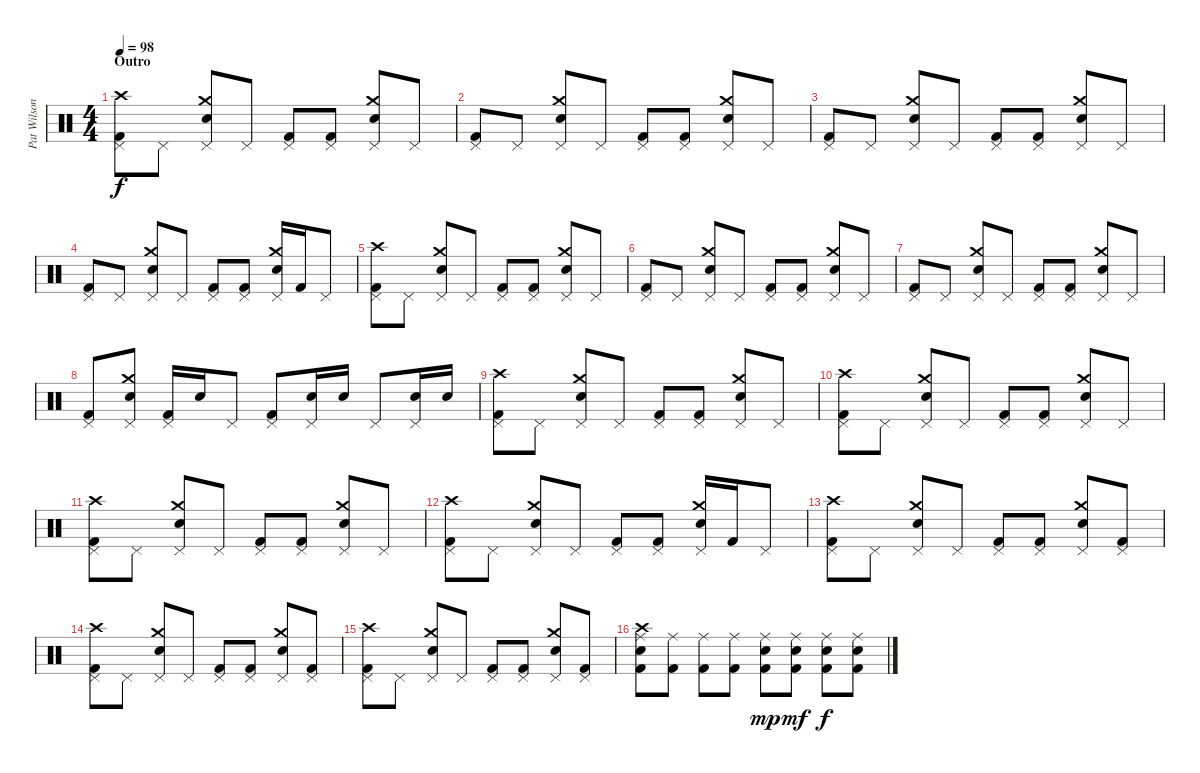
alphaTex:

\track ("Pat Wilson - Drums" "Pat Wilson") {instrument percussion}
\staff {score}
\articulation defaults
\ts (4 4)
\section ("" "Outro")
\tempo 98
\clef neutral
\ks c
("Crash high (hit)" "Pedal Hi-Hat (hit)" "Kick (hit) 2").8{dy f} "Pedal Hi-Hat (hit)".8 ("Crash medium (hit)" "Pedal Hi-Hat (hit)" "Electric Snare (hit)").8 "Pedal Hi-Hat (hit)".8 ("Pedal Hi-Hat (hit)" "Kick (hit) 2").8 ("Pedal Hi-Hat (hit)" "Kick (hit) 2").8 ("Crash medium (hit)" "Pedal Hi-Hat (hit)" "Electric Snare (hit)").8 "Pedal Hi-Hat (hit)".8 |
("Pedal Hi-Hat (hit)" "Kick (hit) 2").8 "Pedal Hi-Hat (hit)".8 ("Crash medium (hit)" "Pedal Hi-Hat (hit)" "Electric Snare (hit)").8 "Pedal Hi-Hat (hit)".8 ("Pedal Hi-Hat (hit)" "Kick (hit) 2").8 ("Pedal Hi-Hat (hit)" "Kick (hit) 2").8 ("Crash medium (hit)" "Pedal Hi-Hat (hit)" "Electric Snare (hit)").8 "Pedal Hi-Hat (hit)".8 |
("Pedal Hi-Hat (hit)" "Kick (hit) 2").8 "Pedal Hi-Hat (hit)".8 ("Crash medium (hit)" "Pedal Hi-Hat (hit)" "Electric Snare (hit)").8 "Pedal Hi-Hat (hit)".8 ("Pedal Hi-Hat (hit)" "Kick (hit) 2").8 ("Pedal Hi-Hat (hit)" "Kick (hit) 2").8 ("Crash medium (hit)" "Pedal Hi-Hat (hit)" "Electric Snare (hit)").8 "Pedal Hi-Hat (hit)".8 |
("Pedal Hi-Hat (hit)" "Kick (hit) 2").8 "Pedal Hi-Hat (hit)".8 ("Crash medium (hit)" "Pedal Hi-Hat (hit)" "Electric Snare (hit)").8 "Pedal Hi-Hat (hit)".8 ("Pedal Hi-Hat (hit)" "Kick (hit) 2").8 ("Pedal Hi-Hat (hit)" "Kick (hit) 2").8 ("Crash medium (hit)" "Pedal Hi-Hat (hit)" "Electric Snare (hit)").16 "Kick (hit) 2".16 "Pedal Hi-Hat (hit)".8 |
("Crash high (hit)" "Pedal Hi-Hat (hit)" "Kick (hit) 2").8 "Pedal Hi-Hat (hit)".8 ("Crash medium (hit)" "Pedal Hi-Hat (hit)" "Electric Snare (hit)").8 "Pedal Hi-Hat (hit)".8 ("Pedal Hi-Hat (hit)" "Kick (hit) 2").8 ("Pedal Hi-Hat (hit)" "Kick (hit) 2").8 ("Crash medium (hit)" "Pedal Hi-Hat (hit)" "Electric Snare (hit)").8 "Pedal Hi-Hat (hit)".8 |
("Pedal Hi-Hat (hit)" "Kick (hit) 2").8 "Pedal Hi-Hat (hit)".8 ("Crash medium (hit)" "Pedal Hi-Hat (hit)" "Electric Snare (hit)").8 "Pedal Hi-Hat (hit)".8 ("Pedal Hi-Hat (hit)" "Kick (hit) 2").8 ("Pedal Hi-Hat (hit)" "Kick (hit) 2").8 ("Crash medium (hit)" "Pedal Hi-Hat (hit)" "Electric Snare (hit)").8 "Pedal Hi-Hat (hit)".8 |
("Pedal Hi-Hat (hit)" "Kick (hit) 2").8 "Pedal Hi-Hat (hit)".8 ("Crash medium (hit)" "Pedal Hi-Hat (hit)" "Electric Snare (hit)").8 "Pedal Hi-Hat (hit)".8 ("Pedal Hi-Hat (hit)" "Kick (hit) 2").8 ("Pedal Hi-Hat (hit)" "Kick (hit) 2").8 ("Crash medium (hit)" "Pedal Hi-Hat (hit)" "Electric Snare (hit)").8 "Pedal Hi-Hat (hit)".8 |
("Pedal Hi-Hat (hit)" "Kick (hit) 2").8 ("Crash medium (hit)" "Pedal Hi-Hat (hit)" "Electric Snare (hit)").8 ("Pedal Hi-Hat (hit)" "Kick (hit) 2").16 "Electric Snare (hit)".16 "Pedal Hi-Hat (hit)".8 ("Pedal Hi-Hat (hit)" "Kick (hit) 2").8 ("Pedal Hi-Hat (hit)" "Electric Snare (hit)").16 "Electric Snare (hit)".16 "Pedal Hi-Hat (hit)".8 ("Pedal Hi-Hat (hit)" "Electric Snare (hit)").16 "Electric Snare (hit)".16 |
("Crash high (hit)" "Pedal Hi-Hat (hit)" "Kick (hit) 2").8 "Pedal Hi-Hat (hit)".8 ("Crash medium (hit)" "Pedal Hi-Hat (hit)" "Electric Snare (hit)").8 "Pedal Hi-Hat (hit)".8 ("Pedal Hi-Hat (hit)" "Kick (hit) 2").8 ("Pedal Hi-Hat (hit)" "Kick (hit) 2").8 ("Crash medium (hit)" "Pedal Hi-Hat (hit)" "Electric Snare (hit)").8 "Pedal Hi-Hat (hit)".8 |
("Crash high (hit)" "Pedal Hi-Hat (hit)" "Kick (hit) 2").8 "Pedal Hi-Hat (hit)".8 ("Crash medium (hit)" "Pedal Hi-Hat (hit)" "Electric Snare (hit)").8 "Pedal Hi-Hat (hit)".8 ("Pedal Hi-Hat (hit)" "Kick (hit) 2").8 ("Pedal Hi-Hat (hit)" "Kick (hit) 2").8 ("Crash medium (hit)" "Pedal Hi-Hat (hit)" "Electric Snare (hit)").8 "Pedal Hi-Hat (hit)".8 |
("Crash high (hit)" "Pedal Hi-Hat (hit)" "Kick (hit) 2").8 "Pedal Hi-Hat (hit)".8 ("Crash medium (hit)" "Pedal Hi-Hat (hit)" "Electric Snare (hit)").8 "Pedal Hi-Hat (hit)".8 ("Pedal Hi-Hat (hit)" "Kick (hit) 2").8 ("Pedal Hi-Hat (hit)" "Kick (hit) 2").8 ("Crash medium (hit)" "Pedal Hi-Hat (hit)" "Electric Snare (hit)").8 "Pedal Hi-Hat (hit)".8 |
("Crash high (hit)" "Pedal Hi-Hat (hit)" "Kick (hit) 2").8 "Pedal Hi-Hat (hit)".8 ("Crash medium (hit)" "Pedal Hi-Hat (hit)" "Electric Snare (hit)").8 "Pedal Hi-Hat (hit)".8 ("Pedal Hi-Hat (hit)" "Kick (hit) 2").8 ("Pedal Hi-Hat (hit)" "Kick (hit) 2").8 ("Crash medium (hit)" "Pedal Hi-Hat (hit)" "Electric Snare (hit)").16 "Kick (hit) 2".16 "Pedal Hi-Hat (hit)".8 |
("Crash high (hit)" "Pedal Hi-Hat (hit)" "Kick (hit) 2").8 "Pedal Hi-Hat (hit)".8 ("Crash medium (hit)" "Pedal Hi-Hat (hit)" "Electric Snare (hit)").8 "Pedal Hi-Hat (hit)".8 ("Pedal Hi-Hat (hit)" "Kick (hit) 2").8 ("Pedal Hi-Hat (hit)" "Kick (hit) 2").8 ("Crash medium (hit)" "Pedal Hi-Hat (hit)" "Electric Snare (hit)").8 ("Pedal Hi-Hat (hit)" "Kick (hit) 2").8 |
("Crash high (hit)" "Pedal Hi-Hat (hit)" "Kick (hit) 2").8 "Pedal Hi-Hat (hit)".8 ("Crash medium (hit)" "Pedal Hi-Hat (hit)" "Electric Snare (hit)").8 "Pedal Hi-Hat (hit)".8 ("Pedal Hi-Hat (hit)" "Kick (hit) 2").8 ("Pedal Hi-Hat (hit)" "Kick (hit) 2").8 ("Crash medium (hit)" "Pedal Hi-Hat (hit)" "Electric Snare (hit)").8 ("Pedal Hi-Hat (hit)" "Kick (hit) 2").8 |
("Crash high (hit)" "Pedal Hi-Hat (hit)" "Kick (hit) 2").8 "Pedal Hi-Hat (hit)".8 ("Crash medium (hit)" "Pedal Hi-Hat (hit)" "Electric Snare (hit)").8 "Pedal Hi-Hat (hit)".8 ("Pedal Hi-Hat (hit)" "Kick (hit) 2").8 ("Pedal Hi-Hat (hit)" "Kick (hit) 2").8 ("Crash medium (hit)" "Pedal Hi-Hat (hit)" "Electric Snare (hit)").8 ("Pedal Hi-Hat (hit)" "Kick (hit) 2").8 |
("Crash high (hit)" "Ride (middle)" "Electric Snare (hit)" "Kick (hit) 2").8 ("Ride (middle)" "Kick (hit) 2").8 ("Ride (middle)" "Kick (hit) 2").8 ("Ride (middle)" "Kick (hit) 2").8 ("Ride (middle)" "Electric Snare (hit)" "Kick (hit) 2").8{dy mp} ("Ride (middle)" "Electric Snare (hit)" "Kick (hit) 2").8{dy mf} ("Ride (middle)" "Electric Snare (hit)" "Kick (hit) 2").8{dy f} ("Ride (middle)" "Electric Snare (hit)" "Kick (hit) 2").8
